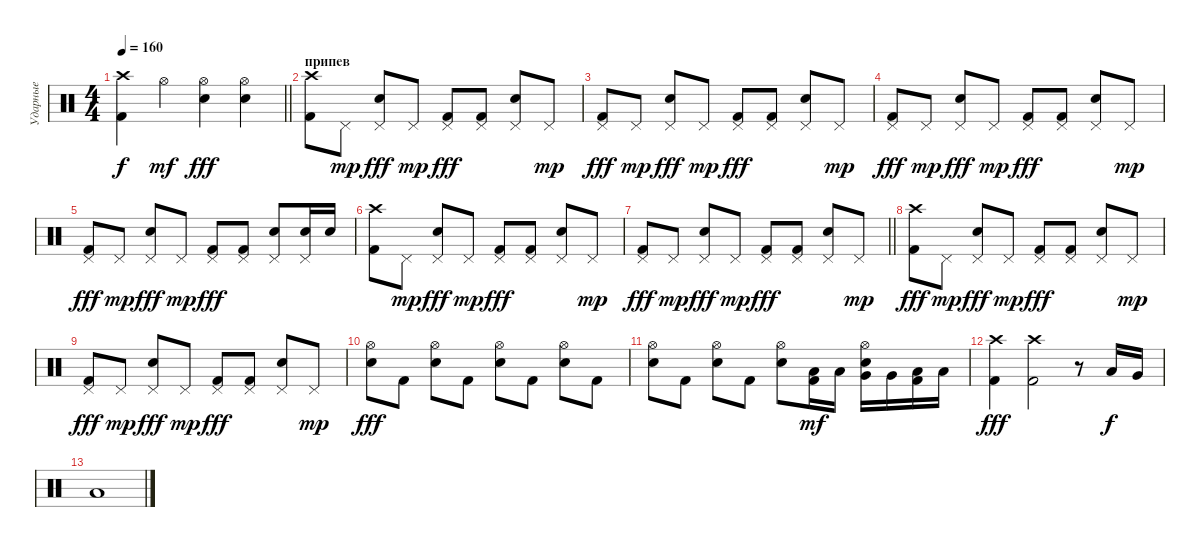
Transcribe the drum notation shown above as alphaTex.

\track ("Ударные" "Ударные") {instrument percussion}
\staff {score}
\articulation defaults
\ts (4 4)
\tempo 160
\clef neutral
\barLineRight lightlight
\ks c
("Kick (hit) 2" "Crash high (hit)").4{dy f} "Hi-Hat (open)".4{dy mf} ("Electric Snare (hit)" "Hi-Hat (open)").4{dy fff} ("Electric Snare (hit)" "Hi-Hat (open)").4 |
\section ("" "припев")
("Crash high (hit)" "Kick (hit) 2").8 "Pedal Hi-Hat (hit)".8{dy mp} ("Pedal Hi-Hat (hit)" "Electric Snare (hit)").8{dy fff} "Pedal Hi-Hat (hit)".8{dy mp} ("Pedal Hi-Hat (hit)" "Kick (hit) 2").8{dy fff} ("Pedal Hi-Hat (hit)" "Kick (hit) 2").8 ("Pedal Hi-Hat (hit)" "Electric Snare (hit)").8 "Pedal Hi-Hat (hit)".8{dy mp} |
("Pedal Hi-Hat (hit)" "Kick (hit) 2").8{dy fff} "Pedal Hi-Hat (hit)".8{dy mp} ("Pedal Hi-Hat (hit)" "Electric Snare (hit)").8{dy fff} "Pedal Hi-Hat (hit)".8{dy mp} ("Pedal Hi-Hat (hit)" "Kick (hit) 2").8{dy fff} ("Pedal Hi-Hat (hit)" "Kick (hit) 2").8 ("Pedal Hi-Hat (hit)" "Electric Snare (hit)").8 "Pedal Hi-Hat (hit)".8{dy mp} |
("Pedal Hi-Hat (hit)" "Kick (hit) 2").8{dy fff} "Pedal Hi-Hat (hit)".8{dy mp} ("Pedal Hi-Hat (hit)" "Electric Snare (hit)").8{dy fff} "Pedal Hi-Hat (hit)".8{dy mp} ("Pedal Hi-Hat (hit)" "Kick (hit) 2").8{dy fff} ("Pedal Hi-Hat (hit)" "Kick (hit) 2").8 ("Pedal Hi-Hat (hit)" "Electric Snare (hit)").8 "Pedal Hi-Hat (hit)".8{dy mp} |
("Pedal Hi-Hat (hit)" "Kick (hit) 2").8{dy fff} "Pedal Hi-Hat (hit)".8{dy mp} ("Pedal Hi-Hat (hit)" "Electric Snare (hit)").8{dy fff} "Pedal Hi-Hat (hit)".8{dy mp} ("Pedal Hi-Hat (hit)" "Kick (hit) 2").8{dy fff} ("Pedal Hi-Hat (hit)" "Kick (hit) 2").8 ("Pedal Hi-Hat (hit)" "Electric Snare (hit)").8 ("Pedal Hi-Hat (hit)" "Electric Snare (hit)").16 "Electric Snare (hit)".16 |
("Crash high (hit)" "Kick (hit) 2").8 "Pedal Hi-Hat (hit)".8{dy mp} ("Pedal Hi-Hat (hit)" "Electric Snare (hit)").8{dy fff} "Pedal Hi-Hat (hit)".8{dy mp} ("Pedal Hi-Hat (hit)" "Kick (hit) 2").8{dy fff} ("Pedal Hi-Hat (hit)" "Kick (hit) 2").8 ("Pedal Hi-Hat (hit)" "Electric Snare (hit)").8 "Pedal Hi-Hat (hit)".8{dy mp} |
\barLineRight lightlight
("Pedal Hi-Hat (hit)" "Kick (hit) 2").8{dy fff} "Pedal Hi-Hat (hit)".8{dy mp} ("Pedal Hi-Hat (hit)" "Electric Snare (hit)").8{dy fff} "Pedal Hi-Hat (hit)".8{dy mp} ("Pedal Hi-Hat (hit)" "Kick (hit) 2").8{dy fff} ("Pedal Hi-Hat (hit)" "Kick (hit) 2").8 ("Pedal Hi-Hat (hit)" "Electric Snare (hit)").8 "Pedal Hi-Hat (hit)".8{dy mp} |
\section ("" "")
("Crash high (hit)" "Kick (hit) 2").8{dy fff} "Pedal Hi-Hat (hit)".8{dy mp} ("Pedal Hi-Hat (hit)" "Electric Snare (hit)").8{dy fff} "Pedal Hi-Hat (hit)".8{dy mp} ("Pedal Hi-Hat (hit)" "Kick (hit) 2").8{dy fff} ("Pedal Hi-Hat (hit)" "Kick (hit) 2").8 ("Pedal Hi-Hat (hit)" "Electric Snare (hit)").8 "Pedal Hi-Hat (hit)".8{dy mp} |
("Pedal Hi-Hat (hit)" "Kick (hit) 2").8{dy fff} "Pedal Hi-Hat (hit)".8{dy mp} ("Pedal Hi-Hat (hit)" "Electric Snare (hit)").8{dy fff} "Pedal Hi-Hat (hit)".8{dy mp} ("Pedal Hi-Hat (hit)" "Kick (hit) 2").8{dy fff} ("Pedal Hi-Hat (hit)" "Kick (hit) 2").8 ("Pedal Hi-Hat (hit)" "Electric Snare (hit)").8 "Pedal Hi-Hat (hit)".8{dy mp} |
("Hi-Hat (open)" "Electric Snare (hit)").8{dy fff} "Kick (hit) 2".8 ("Hi-Hat (open)" "Electric Snare (hit)").8 "Kick (hit) 2".8 ("Hi-Hat (open)" "Electric Snare (hit)").8 "Kick (hit) 2".8 ("Hi-Hat (open)" "Electric Snare (hit)").8 "Kick (hit) 2".8 |
("Hi-Hat (open)" "Electric Snare (hit)").8 "Kick (hit) 2".8 ("Hi-Hat (open)" "Electric Snare (hit)").8 "Kick (hit) 2".8 ("Hi-Hat (open)" "Electric Snare (hit)").8 ("Kick (hit) 2" "Low Tom (hit)").16{dy mf} "Low Tom (hit)".16 ("Hi-Hat (open)" "Electric Snare (hit)" "Very Low Tom (hit)").16 "Very Low Tom (hit)".16 ("Kick (hit) 2" "Low Floor Tom (hit)").16 "Low Floor Tom (hit)".16 |
("Crash high (hit)" "Kick (hit) 2").4{dy fff} ("Crash high (hit)" "Kick (hit) 2").2 r.8 "Low Tom (hit)".16{dy f} "Very Low Tom (hit)".16 |
"Low Floor Tom (hit)".1
